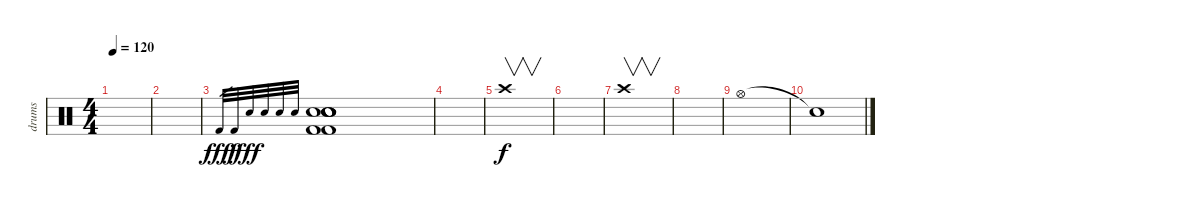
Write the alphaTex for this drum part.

\track ("drums" "drums") {instrument percussion}
\staff {score}
\articulation defaults
\ts (4 4)
\tempo 120
\clef neutral
\ks c
|
|
"Kick (hit) 2".32{gr dy fff} "Kick (hit) 2".32{gr dy f} "Electric Snare (hit)".32{gr dy fff} "Electric Snare (hit)".32{gr} "Electric Snare (hit)".32{gr} "Electric Snare (hit)".32{gr} ("Kick (hit) 2" "Kick (hit) 2" "Electric Snare (hit)" "Electric Snare (hit)" "Electric Snare (hit)" "Electric Snare (hit)").1 |
|
"Crash high (hit)".1{v dy f} |
|
"Crash high (hit)".1{v} |
|
"Hi-Hat (open)".1 |
"Snare (hit)"{t}.1
